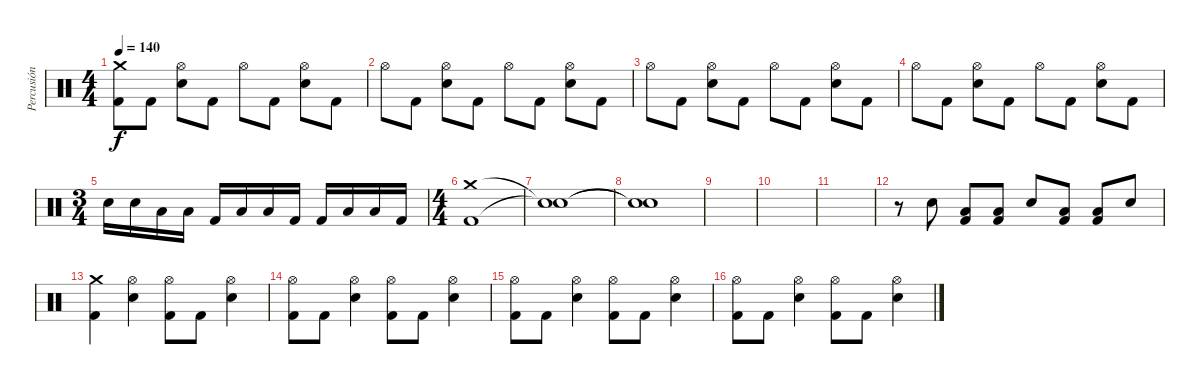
\track ("Percusión" "Percusión") {instrument percussion}
\staff {score}
\articulation defaults
\ts (4 4)
\tempo 140
\clef neutral
\ks c
("Crash medium (hit)" "Kick (hit) 2").8{dy f} "Kick (hit) 2".8 ("Hi-Hat (open)" "Electric Snare (hit)").8 "Kick (hit) 2".8 "Hi-Hat (open)".8 "Kick (hit) 2".8 ("Hi-Hat (open)" "Electric Snare (hit)").8 "Kick (hit) 2".8 |
"Hi-Hat (open)".8 "Kick (hit) 2".8 ("Hi-Hat (open)" "Electric Snare (hit)").8 "Kick (hit) 2".8 "Hi-Hat (open)".8 "Kick (hit) 2".8 ("Hi-Hat (open)" "Electric Snare (hit)").8 "Kick (hit) 2".8 |
"Hi-Hat (open)".8 "Kick (hit) 2".8 ("Hi-Hat (open)" "Electric Snare (hit)").8 "Kick (hit) 2".8 "Hi-Hat (open)".8 "Kick (hit) 2".8 ("Hi-Hat (open)" "Electric Snare (hit)").8 "Kick (hit) 2".8 |
"Hi-Hat (open)".8 "Kick (hit) 2".8 ("Hi-Hat (open)" "Electric Snare (hit)").8 "Kick (hit) 2".8 "Hi-Hat (open)".8 "Kick (hit) 2".8 ("Hi-Hat (open)" "Electric Snare (hit)").8 "Kick (hit) 2".8 |
\ts (3 4)
"Electric Snare (hit)".16 "Electric Snare (hit)".16 "Low Tom (hit)".16 "Low Tom (hit)".16 "Kick (hit) 2".16 "Low Tom (hit)".16 "Low Tom (hit)".16 "Kick (hit) 2".16 "Kick (hit) 2".16 "Low Tom (hit)".16 "Low Tom (hit)".16 "Kick (hit) 2".16 |
\ts (4 4)
("Crash medium (hit)" "Kick (hit) 2").1 |
("Snare (hit)"{t} "Snare (hit)"{t}).1 |
("Snare (hit)"{t} "Snare (hit)"{t}).1 |
|
|
|
r.8 "Electric Snare (hit)".8 ("Low Tom (hit)" "Kick (hit) 2").8 ("Low Tom (hit)" "Kick (hit) 2").8 "Electric Snare (hit)".8 ("Low Tom (hit)" "Kick (hit) 2").8 ("Low Tom (hit)" "Kick (hit) 2").8 "Electric Snare (hit)".8 |
("Crash medium (hit)" "Kick (hit) 2").4 ("Hi-Hat (open)" "Electric Snare (hit)").4 ("Hi-Hat (open)" "Kick (hit) 2").8 "Kick (hit) 2".8 ("Hi-Hat (open)" "Electric Snare (hit)").4 |
("Hi-Hat (open)" "Kick (hit) 2").8 "Kick (hit) 2".8 ("Hi-Hat (open)" "Electric Snare (hit)").4 ("Hi-Hat (open)" "Kick (hit) 2").8 "Kick (hit) 2".8 ("Hi-Hat (open)" "Electric Snare (hit)").4 |
("Hi-Hat (open)" "Kick (hit) 2").8 "Kick (hit) 2".8 ("Hi-Hat (open)" "Electric Snare (hit)").4 ("Hi-Hat (open)" "Kick (hit) 2").8 "Kick (hit) 2".8 ("Hi-Hat (open)" "Electric Snare (hit)").4 |
("Hi-Hat (open)" "Kick (hit) 2").8 "Kick (hit) 2".8 ("Hi-Hat (open)" "Electric Snare (hit)").4 ("Hi-Hat (open)" "Kick (hit) 2").8 "Kick (hit) 2".8 ("Hi-Hat (open)" "Electric Snare (hit)").4
